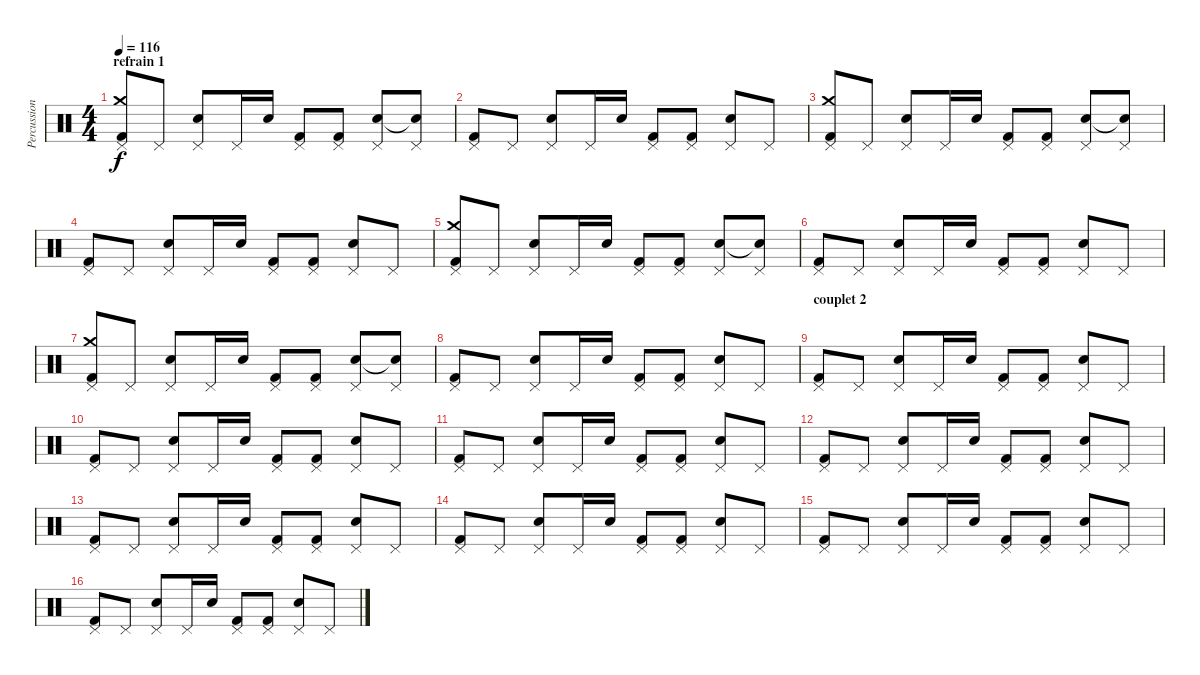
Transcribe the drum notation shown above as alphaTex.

\track ("Percussions" "Percussion") {instrument percussion}
\staff {score}
\articulation defaults
\ts (4 4)
\section ("" "refrain 1")
\tempo 116
\clef neutral
\ks c
("Pedal Hi-Hat (hit)" "Crash medium (hit)" "Kick (hit) 2").8{dy f} "Pedal Hi-Hat (hit)".8 ("Pedal Hi-Hat (hit)" "Electric Snare (hit)").8 "Pedal Hi-Hat (hit)".16 "Electric Snare (hit)".16 ("Pedal Hi-Hat (hit)" "Kick (hit) 2").8 ("Pedal Hi-Hat (hit)" "Kick (hit) 2").8 ("Pedal Hi-Hat (hit)" "Electric Snare (hit)").8 ("Pedal Hi-Hat (hit)" "Snare (hit)"{t}).8 |
("Pedal Hi-Hat (hit)" "Kick (hit) 2").8 "Pedal Hi-Hat (hit)".8 ("Pedal Hi-Hat (hit)" "Electric Snare (hit)").8 "Pedal Hi-Hat (hit)".16 "Electric Snare (hit)".16 ("Pedal Hi-Hat (hit)" "Kick (hit) 2").8 ("Pedal Hi-Hat (hit)" "Kick (hit) 2").8 ("Pedal Hi-Hat (hit)" "Electric Snare (hit)").8 "Pedal Hi-Hat (hit)".8 |
("Pedal Hi-Hat (hit)" "Crash medium (hit)" "Kick (hit) 2").8 "Pedal Hi-Hat (hit)".8 ("Pedal Hi-Hat (hit)" "Electric Snare (hit)").8 "Pedal Hi-Hat (hit)".16 "Electric Snare (hit)".16 ("Pedal Hi-Hat (hit)" "Kick (hit) 2").8 ("Pedal Hi-Hat (hit)" "Kick (hit) 2").8 ("Pedal Hi-Hat (hit)" "Electric Snare (hit)").8 ("Pedal Hi-Hat (hit)" "Snare (hit)"{t}).8 |
("Pedal Hi-Hat (hit)" "Kick (hit) 2").8 "Pedal Hi-Hat (hit)".8 ("Pedal Hi-Hat (hit)" "Electric Snare (hit)").8 "Pedal Hi-Hat (hit)".16 "Electric Snare (hit)".16 ("Pedal Hi-Hat (hit)" "Kick (hit) 2").8 ("Pedal Hi-Hat (hit)" "Kick (hit) 2").8 ("Pedal Hi-Hat (hit)" "Electric Snare (hit)").8 "Pedal Hi-Hat (hit)".8 |
("Pedal Hi-Hat (hit)" "Crash medium (hit)" "Kick (hit) 2").8 "Pedal Hi-Hat (hit)".8 ("Pedal Hi-Hat (hit)" "Electric Snare (hit)").8 "Pedal Hi-Hat (hit)".16 "Electric Snare (hit)".16 ("Pedal Hi-Hat (hit)" "Kick (hit) 2").8 ("Pedal Hi-Hat (hit)" "Kick (hit) 2").8 ("Pedal Hi-Hat (hit)" "Electric Snare (hit)").8 ("Pedal Hi-Hat (hit)" "Snare (hit)"{t}).8 |
("Pedal Hi-Hat (hit)" "Kick (hit) 2").8 "Pedal Hi-Hat (hit)".8 ("Pedal Hi-Hat (hit)" "Electric Snare (hit)").8 "Pedal Hi-Hat (hit)".16 "Electric Snare (hit)".16 ("Pedal Hi-Hat (hit)" "Kick (hit) 2").8 ("Pedal Hi-Hat (hit)" "Kick (hit) 2").8 ("Pedal Hi-Hat (hit)" "Electric Snare (hit)").8 "Pedal Hi-Hat (hit)".8 |
("Pedal Hi-Hat (hit)" "Crash medium (hit)" "Kick (hit) 2").8 "Pedal Hi-Hat (hit)".8 ("Pedal Hi-Hat (hit)" "Electric Snare (hit)").8 "Pedal Hi-Hat (hit)".16 "Electric Snare (hit)".16 ("Pedal Hi-Hat (hit)" "Kick (hit) 2").8 ("Pedal Hi-Hat (hit)" "Kick (hit) 2").8 ("Pedal Hi-Hat (hit)" "Electric Snare (hit)").8 ("Pedal Hi-Hat (hit)" "Snare (hit)"{t}).8 |
("Pedal Hi-Hat (hit)" "Kick (hit) 2").8 "Pedal Hi-Hat (hit)".8 ("Pedal Hi-Hat (hit)" "Electric Snare (hit)").8 "Pedal Hi-Hat (hit)".16 "Electric Snare (hit)".16 ("Pedal Hi-Hat (hit)" "Kick (hit) 2").8 ("Pedal Hi-Hat (hit)" "Kick (hit) 2").8 ("Pedal Hi-Hat (hit)" "Electric Snare (hit)").8 "Pedal Hi-Hat (hit)".8 |
\section ("" "couplet 2")
("Pedal Hi-Hat (hit)" "Kick (hit) 2").8 "Pedal Hi-Hat (hit)".8 ("Pedal Hi-Hat (hit)" "Electric Snare (hit)").8 "Pedal Hi-Hat (hit)".16 "Electric Snare (hit)".16 ("Pedal Hi-Hat (hit)" "Kick (hit) 2").8 ("Pedal Hi-Hat (hit)" "Kick (hit) 2").8 ("Pedal Hi-Hat (hit)" "Electric Snare (hit)").8 "Pedal Hi-Hat (hit)".8 |
("Pedal Hi-Hat (hit)" "Kick (hit) 2").8 "Pedal Hi-Hat (hit)".8 ("Pedal Hi-Hat (hit)" "Electric Snare (hit)").8 "Pedal Hi-Hat (hit)".16 "Electric Snare (hit)".16 ("Pedal Hi-Hat (hit)" "Kick (hit) 2").8 ("Pedal Hi-Hat (hit)" "Kick (hit) 2").8 ("Pedal Hi-Hat (hit)" "Electric Snare (hit)").8 "Pedal Hi-Hat (hit)".8 |
("Pedal Hi-Hat (hit)" "Kick (hit) 2").8 "Pedal Hi-Hat (hit)".8 ("Pedal Hi-Hat (hit)" "Electric Snare (hit)").8 "Pedal Hi-Hat (hit)".16 "Electric Snare (hit)".16 ("Pedal Hi-Hat (hit)" "Kick (hit) 2").8 ("Pedal Hi-Hat (hit)" "Kick (hit) 2").8 ("Pedal Hi-Hat (hit)" "Electric Snare (hit)").8 "Pedal Hi-Hat (hit)".8 |
("Pedal Hi-Hat (hit)" "Kick (hit) 2").8 "Pedal Hi-Hat (hit)".8 ("Pedal Hi-Hat (hit)" "Electric Snare (hit)").8 "Pedal Hi-Hat (hit)".16 "Electric Snare (hit)".16 ("Pedal Hi-Hat (hit)" "Kick (hit) 2").8 ("Pedal Hi-Hat (hit)" "Kick (hit) 2").8 ("Pedal Hi-Hat (hit)" "Electric Snare (hit)").8 "Pedal Hi-Hat (hit)".8 |
("Pedal Hi-Hat (hit)" "Kick (hit) 2").8 "Pedal Hi-Hat (hit)".8 ("Pedal Hi-Hat (hit)" "Electric Snare (hit)").8 "Pedal Hi-Hat (hit)".16 "Electric Snare (hit)".16 ("Pedal Hi-Hat (hit)" "Kick (hit) 2").8 ("Pedal Hi-Hat (hit)" "Kick (hit) 2").8 ("Pedal Hi-Hat (hit)" "Electric Snare (hit)").8 "Pedal Hi-Hat (hit)".8 |
("Pedal Hi-Hat (hit)" "Kick (hit) 2").8 "Pedal Hi-Hat (hit)".8 ("Pedal Hi-Hat (hit)" "Electric Snare (hit)").8 "Pedal Hi-Hat (hit)".16 "Electric Snare (hit)".16 ("Pedal Hi-Hat (hit)" "Kick (hit) 2").8 ("Pedal Hi-Hat (hit)" "Kick (hit) 2").8 ("Pedal Hi-Hat (hit)" "Electric Snare (hit)").8 "Pedal Hi-Hat (hit)".8 |
("Pedal Hi-Hat (hit)" "Kick (hit) 2").8 "Pedal Hi-Hat (hit)".8 ("Pedal Hi-Hat (hit)" "Electric Snare (hit)").8 "Pedal Hi-Hat (hit)".16 "Electric Snare (hit)".16 ("Pedal Hi-Hat (hit)" "Kick (hit) 2").8 ("Pedal Hi-Hat (hit)" "Kick (hit) 2").8 ("Pedal Hi-Hat (hit)" "Electric Snare (hit)").8 "Pedal Hi-Hat (hit)".8 |
("Pedal Hi-Hat (hit)" "Kick (hit) 2").8 "Pedal Hi-Hat (hit)".8 ("Pedal Hi-Hat (hit)" "Electric Snare (hit)").8 "Pedal Hi-Hat (hit)".16 "Electric Snare (hit)".16 ("Pedal Hi-Hat (hit)" "Kick (hit) 2").8 ("Pedal Hi-Hat (hit)" "Kick (hit) 2").8 ("Pedal Hi-Hat (hit)" "Electric Snare (hit)").8 "Pedal Hi-Hat (hit)".8
